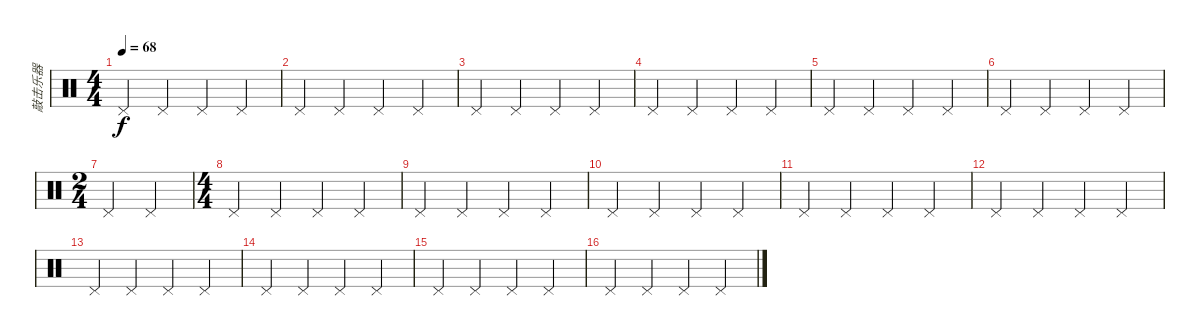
\track ("敲击乐器" "敲击乐器") {instrument percussion}
\staff {score}
\articulation defaults
\ts (4 4)
\tempo 68
\clef neutral
\ks c "Pedal Hi-Hat (hit)".4{dy f} "Pedal Hi-Hat (hit)".4 "Pedal Hi-Hat (hit)".4 "Pedal Hi-Hat (hit)".4
|
"Pedal Hi-Hat (hit)".4 "Pedal Hi-Hat (hit)".4 "Pedal Hi-Hat (hit)".4 "Pedal Hi-Hat (hit)".4 |
"Pedal Hi-Hat (hit)".4 "Pedal Hi-Hat (hit)".4 "Pedal Hi-Hat (hit)".4 "Pedal Hi-Hat (hit)".4 |
"Pedal Hi-Hat (hit)".4 "Pedal Hi-Hat (hit)".4 "Pedal Hi-Hat (hit)".4 "Pedal Hi-Hat (hit)".4 |
"Pedal Hi-Hat (hit)".4 "Pedal Hi-Hat (hit)".4 "Pedal Hi-Hat (hit)".4 "Pedal Hi-Hat (hit)".4 |
"Pedal Hi-Hat (hit)".4 "Pedal Hi-Hat (hit)".4 "Pedal Hi-Hat (hit)".4 "Pedal Hi-Hat (hit)".4 |
\ts (2 4)
"Pedal Hi-Hat (hit)".4 "Pedal Hi-Hat (hit)".4 |
\ts (4 4)
"Pedal Hi-Hat (hit)".4 "Pedal Hi-Hat (hit)".4 "Pedal Hi-Hat (hit)".4 "Pedal Hi-Hat (hit)".4 |
"Pedal Hi-Hat (hit)".4 "Pedal Hi-Hat (hit)".4 "Pedal Hi-Hat (hit)".4 "Pedal Hi-Hat (hit)".4 |
"Pedal Hi-Hat (hit)".4 "Pedal Hi-Hat (hit)".4 "Pedal Hi-Hat (hit)".4 "Pedal Hi-Hat (hit)".4 |
"Pedal Hi-Hat (hit)".4 "Pedal Hi-Hat (hit)".4 "Pedal Hi-Hat (hit)".4 "Pedal Hi-Hat (hit)".4 |
"Pedal Hi-Hat (hit)".4 "Pedal Hi-Hat (hit)".4 "Pedal Hi-Hat (hit)".4 "Pedal Hi-Hat (hit)".4 |
"Pedal Hi-Hat (hit)".4 "Pedal Hi-Hat (hit)".4 "Pedal Hi-Hat (hit)".4 "Pedal Hi-Hat (hit)".4 |
"Pedal Hi-Hat (hit)".4 "Pedal Hi-Hat (hit)".4 "Pedal Hi-Hat (hit)".4 "Pedal Hi-Hat (hit)".4 |
"Pedal Hi-Hat (hit)".4 "Pedal Hi-Hat (hit)".4 "Pedal Hi-Hat (hit)".4 "Pedal Hi-Hat (hit)".4 |
"Pedal Hi-Hat (hit)".4 "Pedal Hi-Hat (hit)".4 "Pedal Hi-Hat (hit)".4 "Pedal Hi-Hat (hit)".4
